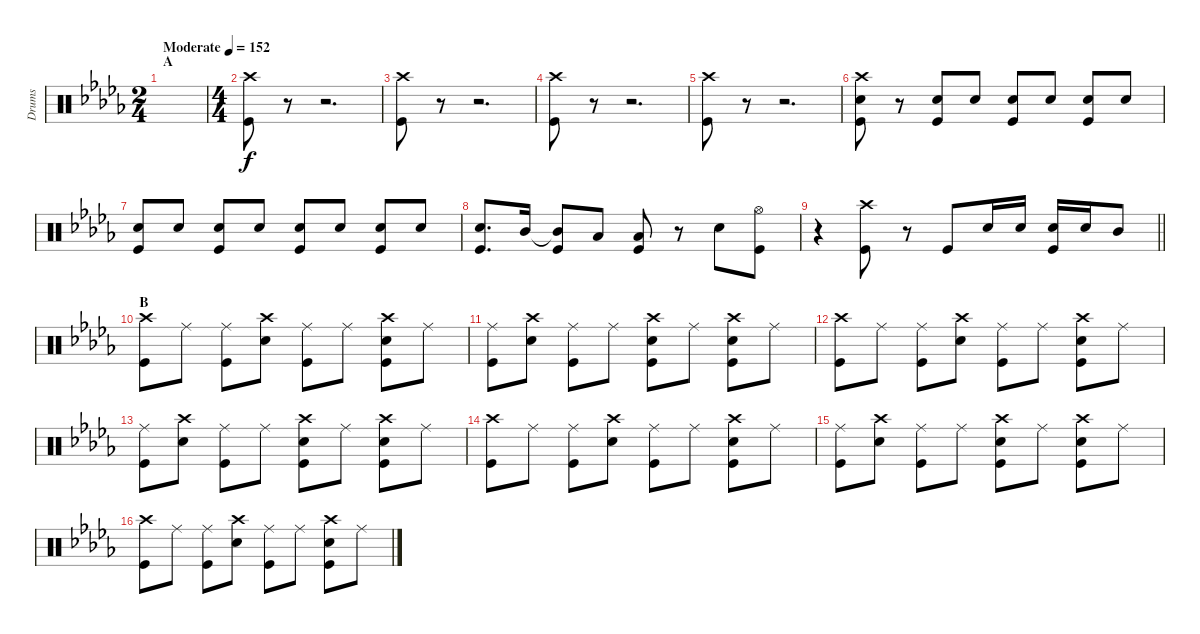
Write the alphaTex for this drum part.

\track ("Drums" "Drums") {instrument percussion}
\staff {score}
\articulation defaults
\ts (2 4)
\section ("" "A")
\tempo (152 "Moderate")
\clef neutral
\ks db
|
\ts (4 4)
("Crash high (hit)" "Kick (hit)").8 r.8 r.2{d} |
("Crash high (hit)" "Kick (hit)").8 r.8 r.2{d} |
("Crash high (hit)" "Kick (hit)").8 r.8 r.2{d} |
("Crash high (hit)" "Kick (hit)").8 r.8 r.2{d} |
("Crash high (hit)" "Snare (hit) 2" "Kick (hit)").8 r.8 ("Snare (hit) 2" "Kick (hit)").8 "Snare (hit) 2".8 ("Snare (hit) 2" "Kick (hit)").8 "Snare (hit) 2".8 ("Snare (hit) 2" "Kick (hit)").8 "Snare (hit) 2".8 |
("Snare (hit) 2" "Kick (hit)").8 "Snare (hit) 2".8 ("Snare (hit) 2" "Kick (hit)").8 "Snare (hit) 2".8 ("Snare (hit) 2" "Kick (hit)").8 "Snare (hit) 2".8 ("Snare (hit) 2" "Kick (hit)").8 "Snare (hit) 2".8 |
("Snare (hit) 2" "Kick (hit)").8{d} "Mid Tom (hit)".16 ("Mid Tom (hit)"{t} "Kick (hit)").8 "Low Tom (hit)".8 ("Low Tom (hit)" "Kick (hit)").8 r.8 "Snare (hit) 2".8 ("Hi-Hat (open)" "Kick (hit)").8 |
\barLineRight lightlight
r.4 ("Crash high (hit)" "Kick (hit)").8 r.8 "Kick (hit)".8 "Snare (hit) 2".16 "Snare (hit) 2".16 ("Snare (hit) 2" "Kick (hit)").16 "Snare (hit) 2".16 "Mid Tom (hit)".8 |
\section ("" "B")
("Crash high (hit)" "Kick (hit)").8 "Ride (middle)".8 ("Ride (middle)" "Kick (hit)").8 ("Crash high (hit)" "Snare (hit) 2").8 ("Ride (middle)" "Kick (hit)").8 "Ride (middle)".8 ("Crash high (hit)" "Snare (hit) 2" "Kick (hit)").8 "Ride (middle)".8 |
("Ride (middle)" "Kick (hit)").8 ("Crash high (hit)" "Snare (hit) 2").8 ("Ride (middle)" "Kick (hit)").8 "Ride (middle)".8 ("Crash high (hit)" "Snare (hit) 2" "Kick (hit)").8 "Ride (middle)".8 ("Crash high (hit)" "Snare (hit) 2" "Kick (hit)").8 "Ride (middle)".8 |
("Crash high (hit)" "Kick (hit)").8 "Ride (middle)".8 ("Ride (middle)" "Kick (hit)").8 ("Crash high (hit)" "Snare (hit) 2").8 ("Ride (middle)" "Kick (hit)").8 "Ride (middle)".8 ("Crash high (hit)" "Snare (hit) 2" "Kick (hit)").8 "Ride (middle)".8 |
("Ride (middle)" "Kick (hit)").8 ("Crash high (hit)" "Snare (hit) 2").8 ("Ride (middle)" "Kick (hit)").8 "Ride (middle)".8 ("Crash high (hit)" "Snare (hit) 2" "Kick (hit)").8 "Ride (middle)".8 ("Crash high (hit)" "Snare (hit) 2" "Kick (hit)").8 "Ride (middle)".8 |
("Crash high (hit)" "Kick (hit)").8 "Ride (middle)".8 ("Ride (middle)" "Kick (hit)").8 ("Crash high (hit)" "Snare (hit) 2").8 ("Ride (middle)" "Kick (hit)").8 "Ride (middle)".8 ("Crash high (hit)" "Snare (hit) 2" "Kick (hit)").8 "Ride (middle)".8 |
("Ride (middle)" "Kick (hit)").8 ("Crash high (hit)" "Snare (hit) 2").8 ("Ride (middle)" "Kick (hit)").8 "Ride (middle)".8 ("Crash high (hit)" "Snare (hit) 2" "Kick (hit)").8 "Ride (middle)".8 ("Crash high (hit)" "Snare (hit) 2" "Kick (hit)").8 "Ride (middle)".8 |
("Crash high (hit)" "Kick (hit)").8 "Ride (middle)".8 ("Ride (middle)" "Kick (hit)").8 ("Crash high (hit)" "Snare (hit) 2").8 ("Ride (middle)" "Kick (hit)").8 "Ride (middle)".8 ("Crash high (hit)" "Snare (hit) 2" "Kick (hit)").8 "Ride (middle)".8
